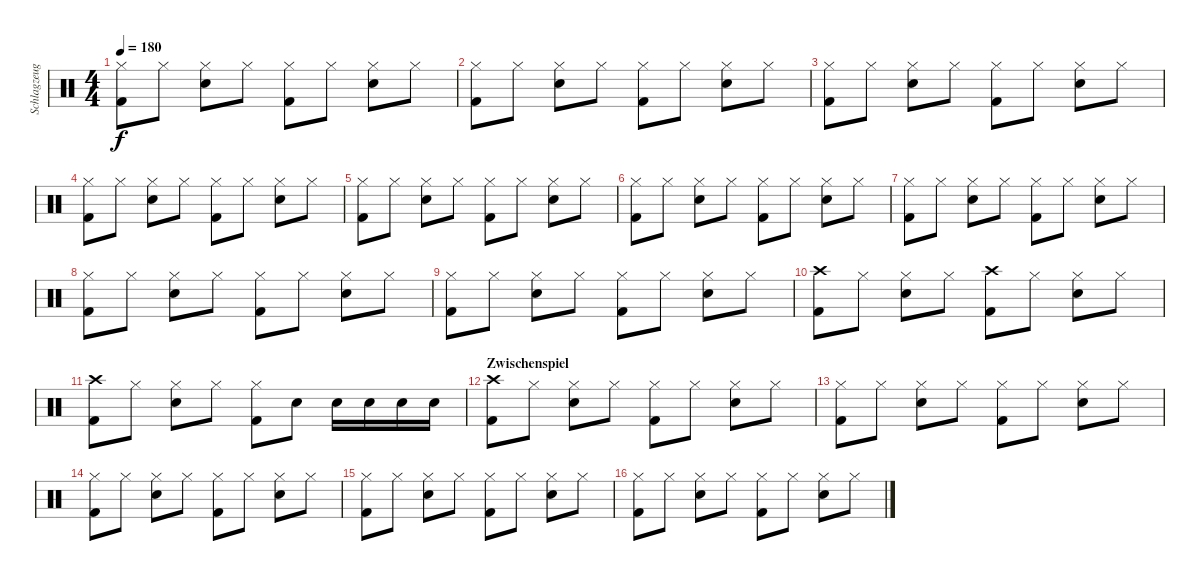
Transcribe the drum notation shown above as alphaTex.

\track ("Schlagzeug" "Schlagzeug") {instrument percussion}
\staff {score}
\articulation defaults
\ts (4 4)
\tempo 180
\clef neutral
\ks c
("Hi-Hat (closed)" "Kick (hit) 2").8{dy f} "Hi-Hat (closed)".8 ("Hi-Hat (closed)" "Snare (hit) 2").8 "Hi-Hat (closed)".8 ("Hi-Hat (closed)" "Kick (hit) 2").8 "Hi-Hat (closed)".8 ("Hi-Hat (closed)" "Snare (hit) 2").8 "Hi-Hat (closed)".8 |
("Hi-Hat (closed)" "Kick (hit) 2").8 "Hi-Hat (closed)".8 ("Hi-Hat (closed)" "Snare (hit) 2").8 "Hi-Hat (closed)".8 ("Hi-Hat (closed)" "Kick (hit) 2").8 "Hi-Hat (closed)".8 ("Hi-Hat (closed)" "Snare (hit) 2").8 "Hi-Hat (closed)".8 |
("Hi-Hat (closed)" "Kick (hit) 2").8 "Hi-Hat (closed)".8 ("Hi-Hat (closed)" "Snare (hit) 2").8 "Hi-Hat (closed)".8 ("Hi-Hat (closed)" "Kick (hit) 2").8 "Hi-Hat (closed)".8 ("Hi-Hat (closed)" "Snare (hit) 2").8 "Hi-Hat (closed)".8 |
("Hi-Hat (closed)" "Kick (hit) 2").8 "Hi-Hat (closed)".8 ("Hi-Hat (closed)" "Snare (hit) 2").8 "Hi-Hat (closed)".8 ("Hi-Hat (closed)" "Kick (hit) 2").8 "Hi-Hat (closed)".8 ("Hi-Hat (closed)" "Snare (hit) 2").8 "Hi-Hat (closed)".8 |
("Hi-Hat (closed)" "Kick (hit) 2").8 "Hi-Hat (closed)".8 ("Hi-Hat (closed)" "Snare (hit) 2").8 "Hi-Hat (closed)".8 ("Hi-Hat (closed)" "Kick (hit) 2").8 "Hi-Hat (closed)".8 ("Hi-Hat (closed)" "Snare (hit) 2").8 "Hi-Hat (closed)".8 |
("Hi-Hat (closed)" "Kick (hit) 2").8 "Hi-Hat (closed)".8 ("Hi-Hat (closed)" "Snare (hit) 2").8 "Hi-Hat (closed)".8 ("Hi-Hat (closed)" "Kick (hit) 2").8 "Hi-Hat (closed)".8 ("Hi-Hat (closed)" "Snare (hit) 2").8 "Hi-Hat (closed)".8 |
("Hi-Hat (closed)" "Kick (hit) 2").8 "Hi-Hat (closed)".8 ("Hi-Hat (closed)" "Snare (hit) 2").8 "Hi-Hat (closed)".8 ("Hi-Hat (closed)" "Kick (hit) 2").8 "Hi-Hat (closed)".8 ("Hi-Hat (closed)" "Snare (hit) 2").8 "Hi-Hat (closed)".8 |
("Hi-Hat (closed)" "Kick (hit) 2").8 "Hi-Hat (closed)".8 ("Hi-Hat (closed)" "Snare (hit) 2").8 "Hi-Hat (closed)".8 ("Hi-Hat (closed)" "Kick (hit) 2").8 "Hi-Hat (closed)".8 ("Hi-Hat (closed)" "Snare (hit) 2").8 "Hi-Hat (closed)".8 |
("Hi-Hat (closed)" "Kick (hit) 2").8 "Hi-Hat (closed)".8 ("Hi-Hat (closed)" "Snare (hit) 2").8 "Hi-Hat (closed)".8 ("Hi-Hat (closed)" "Kick (hit) 2").8 "Hi-Hat (closed)".8 ("Hi-Hat (closed)" "Snare (hit) 2").8 "Hi-Hat (closed)".8 |
("Kick (hit) 2" "Crash high (hit)").8 "Hi-Hat (closed)".8 ("Snare (hit) 2" "Hi-Hat (closed)").8 "Hi-Hat (closed)".8 ("Crash high (hit)" "Kick (hit) 2").8 "Hi-Hat (closed)".8 ("Hi-Hat (closed)" "Snare (hit) 2").8 "Hi-Hat (closed)".8 |
("Kick (hit) 2" "Crash high (hit)").8 "Hi-Hat (closed)".8 ("Hi-Hat (closed)" "Snare (hit) 2").8 "Hi-Hat (closed)".8 ("Hi-Hat (closed)" "Kick (hit) 2").8 "Snare (hit) 2".8 "Snare (hit) 2".16 "Snare (hit) 2".16 "Snare (hit) 2".16 "Snare (hit) 2".16 |
\section ("" "Zwischenspiel")
("Crash high (hit)" "Kick (hit) 2").8 "Hi-Hat (closed)".8 ("Hi-Hat (closed)" "Snare (hit) 2").8 "Hi-Hat (closed)".8 ("Hi-Hat (closed)" "Kick (hit) 2").8 "Hi-Hat (closed)".8 ("Hi-Hat (closed)" "Snare (hit) 2").8 "Hi-Hat (closed)".8 |
("Hi-Hat (closed)" "Kick (hit) 2").8 "Hi-Hat (closed)".8 ("Hi-Hat (closed)" "Snare (hit) 2").8 "Hi-Hat (closed)".8 ("Hi-Hat (closed)" "Kick (hit) 2").8 "Hi-Hat (closed)".8 ("Hi-Hat (closed)" "Snare (hit) 2").8 "Hi-Hat (closed)".8 |
("Hi-Hat (closed)" "Kick (hit) 2").8 "Hi-Hat (closed)".8 ("Hi-Hat (closed)" "Snare (hit) 2").8 "Hi-Hat (closed)".8 ("Hi-Hat (closed)" "Kick (hit) 2").8 "Hi-Hat (closed)".8 ("Hi-Hat (closed)" "Snare (hit) 2").8 "Hi-Hat (closed)".8 |
("Hi-Hat (closed)" "Kick (hit) 2").8 "Hi-Hat (closed)".8 ("Hi-Hat (closed)" "Snare (hit) 2").8 "Hi-Hat (closed)".8 ("Hi-Hat (closed)" "Kick (hit) 2").8 "Hi-Hat (closed)".8 ("Hi-Hat (closed)" "Snare (hit) 2").8 "Hi-Hat (closed)".8 |
("Hi-Hat (closed)" "Kick (hit) 2").8 "Hi-Hat (closed)".8 ("Hi-Hat (closed)" "Snare (hit) 2").8 "Hi-Hat (closed)".8 ("Hi-Hat (closed)" "Kick (hit) 2").8 "Hi-Hat (closed)".8 ("Hi-Hat (closed)" "Snare (hit) 2").8 "Hi-Hat (closed)".8
